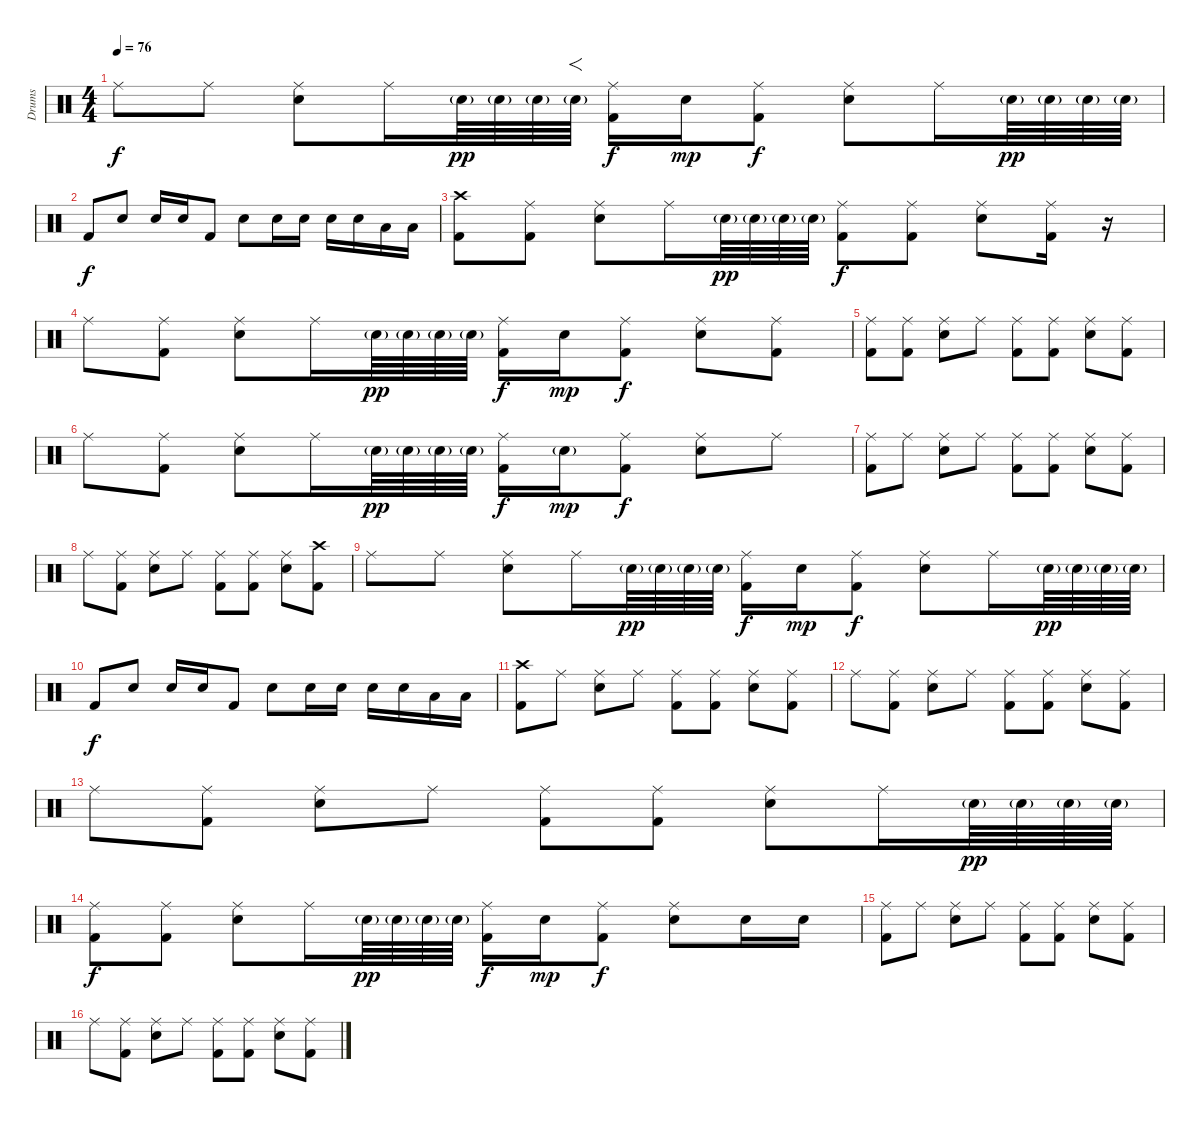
\track ("Drums" "Drums") {instrument percussion}
\staff {score}
\articulation defaults
\ts (4 4)
\tempo 76
\clef neutral
\ks c "Ride (middle)".8{dy f} "Ride (middle)".8
("Ride (middle)" "Snare (hit) 2").8 "Ride (middle)".16 "Snare (hit) 2"{g}.64{dy pp} "Snare (hit) 2"{g}.64 "Snare (hit) 2"{g}.64 "Snare (hit) 2"{g}.64{f} ("Ride (middle)" "Kick (hit) 2").16{dy f} "Snare (hit) 2".16{dy mp} ("Ride (middle)" "Kick (hit) 2").8{dy f} ("Ride (middle)" "Snare (hit) 2").8 "Ride (middle)".16 "Snare (hit) 2"{g}.64{dy pp} "Snare (hit) 2"{g}.64 "Snare (hit) 2"{g}.64 "Snare (hit) 2"{g}.64 |
"Kick (hit) 2".8{dy f} "Snare (hit) 2".8 "Snare (hit) 2".16 "Snare (hit) 2".16 "Kick (hit) 2".8 "Snare (hit) 2".8 "Snare (hit) 2".16 "Snare (hit) 2".16 "Snare (hit) 2".16 "Snare (hit) 2".16 "Low Tom (hit)".16 "Low Tom (hit)".16 |
("Crash high (hit)" "Kick (hit) 2").8 ("Ride (middle)" "Kick (hit) 2").8 ("Ride (middle)" "Snare (hit) 2").8 "Ride (middle)".16 "Snare (hit) 2"{g}.64{dy pp} "Snare (hit) 2"{g}.64 "Snare (hit) 2"{g}.64 "Snare (hit) 2"{g}.64 ("Ride (middle)" "Kick (hit) 2").8{dy f} ("Ride (middle)" "Kick (hit) 2").8 ("Ride (middle)" "Snare (hit) 2").8 ("Ride (middle)" "Kick (hit) 2").16 r.16 |
"Ride (middle)".8 ("Ride (middle)" "Kick (hit) 2").8 ("Ride (middle)" "Snare (hit) 2").8 "Ride (middle)".16 "Snare (hit) 2"{g}.64{dy pp} "Snare (hit) 2"{g}.64 "Snare (hit) 2"{g}.64 "Snare (hit) 2"{g}.64 ("Ride (middle)" "Kick (hit) 2").16{dy f} "Snare (hit) 2".16{dy mp} ("Ride (middle)" "Kick (hit) 2").8{dy f} ("Ride (middle)" "Snare (hit) 2").8 ("Ride (middle)" "Kick (hit) 2").8 |
("Ride (middle)" "Kick (hit) 2").8 ("Ride (middle)" "Kick (hit) 2").8 ("Ride (middle)" "Snare (hit) 2").8 "Ride (middle)".8 ("Ride (middle)" "Kick (hit) 2").8 ("Ride (middle)" "Kick (hit) 2").8 ("Ride (middle)" "Snare (hit) 2").8 ("Ride (middle)" "Kick (hit) 2").8 |
"Ride (middle)".8 ("Ride (middle)" "Kick (hit) 2").8 ("Ride (middle)" "Snare (hit) 2").8 "Ride (middle)".16 "Snare (hit) 2"{g}.64{dy pp} "Snare (hit) 2"{g}.64 "Snare (hit) 2"{g}.64 "Snare (hit) 2"{g}.64 ("Ride (middle)" "Kick (hit) 2").16{dy f} "Snare (hit) 2"{g}.16{dy mp} ("Ride (middle)" "Kick (hit) 2").8{dy f} ("Ride (middle)" "Snare (hit) 2").8 "Ride (middle)".8 |
("Ride (middle)" "Kick (hit) 2").8 "Ride (middle)".8 ("Ride (middle)" "Snare (hit) 2").8 "Ride (middle)".8 ("Ride (middle)" "Kick (hit) 2").8 ("Ride (middle)" "Kick (hit) 2").8 ("Ride (middle)" "Snare (hit) 2").8 ("Ride (middle)" "Kick (hit) 2").8 |
"Ride (middle)".8 ("Ride (middle)" "Kick (hit) 2").8 ("Ride (middle)" "Snare (hit) 2").8 "Ride (middle)".8 ("Ride (middle)" "Kick (hit) 2").8 ("Ride (middle)" "Kick (hit) 2").8 ("Ride (middle)" "Snare (hit) 2").8 ("Crash high (hit)" "Kick (hit) 2").8 |
"Ride (middle)".8 "Ride (middle)".8 ("Ride (middle)" "Snare (hit) 2").8 "Ride (middle)".16 "Snare (hit) 2"{g}.64{dy pp} "Snare (hit) 2"{g}.64 "Snare (hit) 2"{g}.64 "Snare (hit) 2"{g}.64 ("Ride (middle)" "Kick (hit) 2").16{dy f} "Snare (hit) 2".16{dy mp} ("Ride (middle)" "Kick (hit) 2").8{dy f} ("Ride (middle)" "Snare (hit) 2").8 "Ride (middle)".16 "Snare (hit) 2"{g}.64{dy pp} "Snare (hit) 2"{g}.64 "Snare (hit) 2"{g}.64 "Snare (hit) 2"{g}.64 |
"Kick (hit) 2".8{dy f} "Snare (hit) 2".8 "Snare (hit) 2".16 "Snare (hit) 2".16 "Kick (hit) 2".8 "Snare (hit) 2".8 "Snare (hit) 2".16 "Snare (hit) 2".16 "Snare (hit) 2".16 "Snare (hit) 2".16 "Low Tom (hit)".16 "Low Tom (hit)".16 |
("Crash high (hit)" "Kick (hit) 2").8 "Ride (middle)".8 ("Ride (middle)" "Snare (hit) 2").8 "Ride (middle)".8 ("Ride (middle)" "Kick (hit) 2").8 ("Ride (middle)" "Kick (hit) 2").8 ("Ride (middle)" "Snare (hit) 2").8 ("Ride (middle)" "Kick (hit) 2").8 |
"Ride (middle)".8 ("Ride (middle)" "Kick (hit) 2").8 ("Ride (middle)" "Snare (hit) 2").8 "Ride (middle)".8 ("Ride (middle)" "Kick (hit) 2").8 ("Ride (middle)" "Kick (hit) 2").8 ("Ride (middle)" "Snare (hit) 2").8 ("Ride (middle)" "Kick (hit) 2").8 |
"Ride (middle)".8 ("Ride (middle)" "Kick (hit) 2").8 ("Ride (middle)" "Snare (hit) 2").8 "Ride (middle)".8 ("Ride (middle)" "Kick (hit) 2").8 ("Ride (middle)" "Kick (hit) 2").8 ("Ride (middle)" "Snare (hit) 2").8 "Ride (middle)".16 "Snare (hit) 2"{g}.64{dy pp} "Snare (hit) 2"{g}.64 "Snare (hit) 2"{g}.64 "Snare (hit) 2"{g}.64 |
("Ride (middle)" "Kick (hit) 2").8{dy f} ("Ride (middle)" "Kick (hit) 2").8 ("Ride (middle)" "Snare (hit) 2").8 "Ride (middle)".16 "Snare (hit) 2"{g}.64{dy pp} "Snare (hit) 2"{g}.64 "Snare (hit) 2"{g}.64 "Snare (hit) 2"{g}.64 ("Ride (middle)" "Kick (hit) 2").16{dy f} "Snare (hit) 2".16{dy mp} ("Ride (middle)" "Kick (hit) 2").8{dy f} ("Ride (middle)" "Snare (hit) 2").8 "Snare (hit) 2".16 "Snare (hit) 2".16 |
("Ride (middle)" "Kick (hit) 2").8 "Ride (middle)".8 ("Ride (middle)" "Snare (hit) 2").8 "Ride (middle)".8 ("Ride (middle)" "Kick (hit) 2").8 ("Ride (middle)" "Kick (hit) 2").8 ("Ride (middle)" "Snare (hit) 2").8 ("Ride (middle)" "Kick (hit) 2").8 |
"Ride (middle)".8 ("Ride (middle)" "Kick (hit) 2").8 ("Ride (middle)" "Snare (hit) 2").8 "Ride (middle)".8 ("Ride (middle)" "Kick (hit) 2").8 ("Ride (middle)" "Kick (hit) 2").8 ("Ride (middle)" "Snare (hit) 2").8 ("Ride (middle)" "Kick (hit) 2").8
